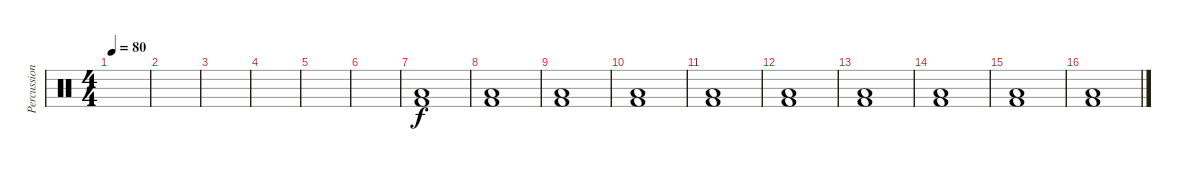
\track ("Percussion" "Percussion") {instrument percussion}
\staff {score}
\articulation defaults
\ts (4 4)
\tempo 80
\clef neutral
\ks c
|
|
|
|
|
|
("Low Floor Tom (hit)" "Kick (hit) 2").1 |
("Low Floor Tom (hit)" "Kick (hit) 2").1 |
("Low Floor Tom (hit)" "Kick (hit) 2").1 |
("Low Floor Tom (hit)" "Kick (hit) 2").1 |
("Low Floor Tom (hit)" "Kick (hit) 2").1 |
("Low Floor Tom (hit)" "Kick (hit) 2").1 |
("Low Floor Tom (hit)" "Kick (hit) 2").1 |
("Low Floor Tom (hit)" "Kick (hit) 2").1 |
("Low Floor Tom (hit)" "Kick (hit) 2").1 |
("Low Floor Tom (hit)" "Kick (hit) 2").1
